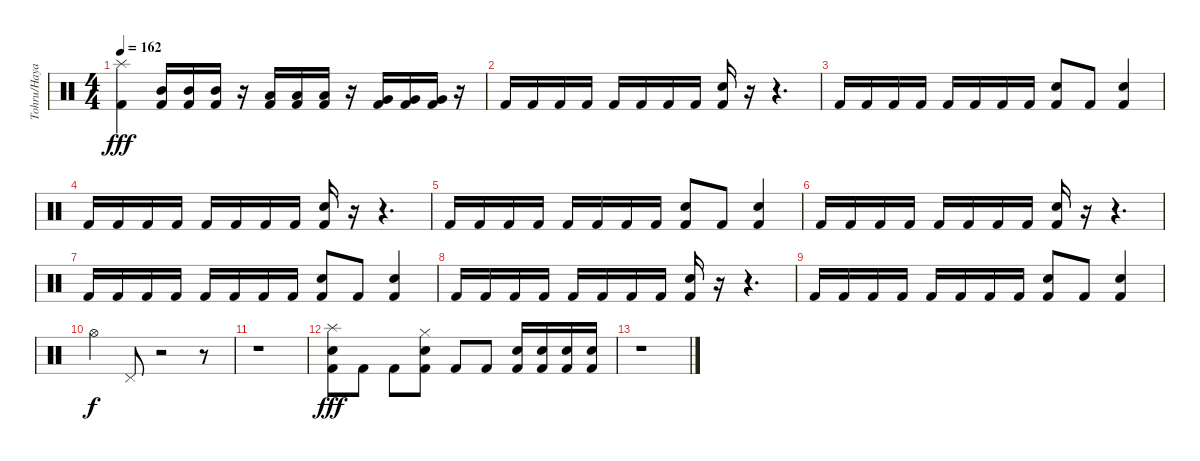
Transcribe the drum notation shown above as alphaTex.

\track ("Tohru/Hayato" "Tohru/Haya") {instrument percussion}
\staff {score}
\articulation defaults
\ts (4 4)
\tempo 162
\clef neutral
\ks c
("Splash (hit)" "Kick (hit) 2").4{dy fff} ("Mid Tom (hit)" "Kick (hit) 2").16 ("Mid Tom (hit)" "Kick (hit) 2").16 ("Mid Tom (hit)" "Kick (hit) 2").16 r.16 ("Low Tom (hit)" "Kick (hit) 2").16 ("Low Tom (hit)" "Kick (hit) 2").16 ("Low Tom (hit)" "Kick (hit) 2").16 r.16 ("Very Low Tom (hit)" "Kick (hit) 2").16 ("Very Low Tom (hit)" "Kick (hit) 2").16 ("Very Low Tom (hit)" "Kick (hit) 2").16 r.16 |
"Kick (hit) 2".16 "Kick (hit) 2".16 "Kick (hit) 2".16 "Kick (hit) 2".16 "Kick (hit) 2".16 "Kick (hit) 2".16 "Kick (hit) 2".16 "Kick (hit) 2".16 ("Electric Snare (hit)" "Kick (hit) 2").16 r.16 r.4{d} |
"Kick (hit) 2".16 "Kick (hit) 2".16 "Kick (hit) 2".16 "Kick (hit) 2".16 "Kick (hit) 2".16 "Kick (hit) 2".16 "Kick (hit) 2".16 "Kick (hit) 2".16 ("Electric Snare (hit)" "Kick (hit) 2").8 "Kick (hit) 2".8 ("Electric Snare (hit)" "Kick (hit) 2").4 |
"Kick (hit) 2".16 "Kick (hit) 2".16 "Kick (hit) 2".16 "Kick (hit) 2".16 "Kick (hit) 2".16 "Kick (hit) 2".16 "Kick (hit) 2".16 "Kick (hit) 2".16 ("Electric Snare (hit)" "Kick (hit) 2").16 r.16 r.4{d} |
"Kick (hit) 2".16 "Kick (hit) 2".16 "Kick (hit) 2".16 "Kick (hit) 2".16 "Kick (hit) 2".16 "Kick (hit) 2".16 "Kick (hit) 2".16 "Kick (hit) 2".16 ("Electric Snare (hit)" "Kick (hit) 2").8 "Kick (hit) 2".8 ("Electric Snare (hit)" "Kick (hit) 2").4 |
"Kick (hit) 2".16 "Kick (hit) 2".16 "Kick (hit) 2".16 "Kick (hit) 2".16 "Kick (hit) 2".16 "Kick (hit) 2".16 "Kick (hit) 2".16 "Kick (hit) 2".16 ("Electric Snare (hit)" "Kick (hit) 2").16 r.16 r.4{d} |
"Kick (hit) 2".16 "Kick (hit) 2".16 "Kick (hit) 2".16 "Kick (hit) 2".16 "Kick (hit) 2".16 "Kick (hit) 2".16 "Kick (hit) 2".16 "Kick (hit) 2".16 ("Electric Snare (hit)" "Kick (hit) 2").8 "Kick (hit) 2".8 ("Electric Snare (hit)" "Kick (hit) 2").4 |
"Kick (hit) 2".16 "Kick (hit) 2".16 "Kick (hit) 2".16 "Kick (hit) 2".16 "Kick (hit) 2".16 "Kick (hit) 2".16 "Kick (hit) 2".16 "Kick (hit) 2".16 ("Electric Snare (hit)" "Kick (hit) 2").16 r.16 r.4{d} |
"Kick (hit) 2".16 "Kick (hit) 2".16 "Kick (hit) 2".16 "Kick (hit) 2".16 "Kick (hit) 2".16 "Kick (hit) 2".16 "Kick (hit) 2".16 "Kick (hit) 2".16 ("Electric Snare (hit)" "Kick (hit) 2").8 "Kick (hit) 2".8 ("Electric Snare (hit)" "Kick (hit) 2").4 |
"Hi-Hat (open)".4{dy f} "Pedal Hi-Hat (hit)".8 r.2 r.8 |
r.1 |
("Splash (hit)" "Electric Snare (hit)" "Kick (hit) 2").8{dy fff} "Kick (hit) 2".8 "Kick (hit) 2".8 ("Hi-Hat (closed)" "Electric Snare (hit)" "Kick (hit) 2").8 "Kick (hit) 2".8 "Kick (hit) 2".8 ("Electric Snare (hit)" "Kick (hit) 2").16 ("Electric Snare (hit)" "Kick (hit) 2").16 ("Electric Snare (hit)" "Kick (hit) 2").16 ("Electric Snare (hit)" "Kick (hit) 2").16 |
r.1
